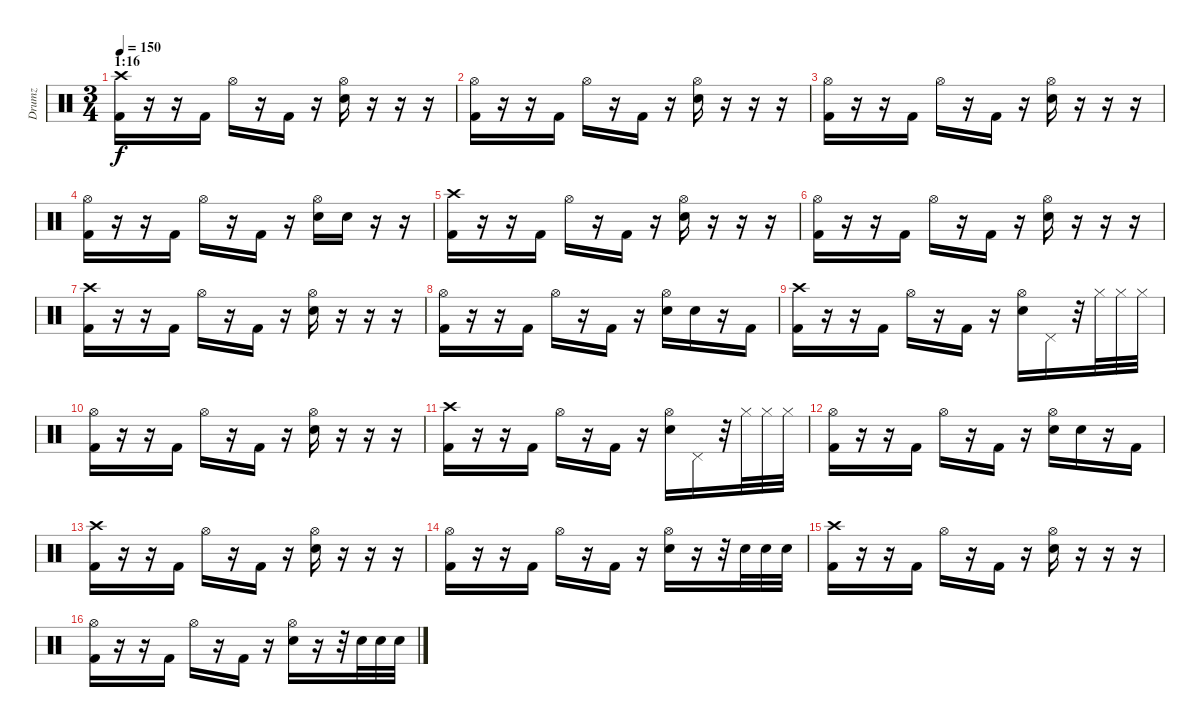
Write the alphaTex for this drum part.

\track ("Drumz" "Drumz") {instrument percussion}
\staff {score}
\articulation defaults
\ts (3 4)
\section ("" "1:16")
\tempo 150
\clef neutral
\ks c
("Crash high (hit)" "Kick (hit) 2").16{dy f} r.16 r.16 "Kick (hit) 2".16 "Hi-Hat (open)".16 r.16 "Kick (hit) 2".16 r.16 ("Hi-Hat (open)" "Electric Snare (hit)").16 r.16 r.16 r.16 |
("Hi-Hat (open)" "Kick (hit) 2").16 r.16 r.16 "Kick (hit) 2".16 "Hi-Hat (open)".16 r.16 "Kick (hit) 2".16 r.16 ("Hi-Hat (open)" "Electric Snare (hit)").16 r.16 r.16 r.16 |
("Hi-Hat (open)" "Kick (hit) 2").16 r.16 r.16 "Kick (hit) 2".16 "Hi-Hat (open)".16 r.16 "Kick (hit) 2".16 r.16 ("Hi-Hat (open)" "Electric Snare (hit)").16 r.16 r.16 r.16 |
("Hi-Hat (open)" "Kick (hit) 2").16 r.16 r.16 "Kick (hit) 2".16 "Hi-Hat (open)".16 r.16 "Kick (hit) 2".16 r.16 ("Hi-Hat (open)" "Electric Snare (hit)").16 "Electric Snare (hit)".16 r.16 r.16 |
("Crash high (hit)" "Kick (hit) 2").16 r.16 r.16 "Kick (hit) 2".16 "Hi-Hat (open)".16 r.16 "Kick (hit) 2".16 r.16 ("Hi-Hat (open)" "Electric Snare (hit)").16 r.16 r.16 r.16 |
("Hi-Hat (open)" "Kick (hit) 2").16 r.16 r.16 "Kick (hit) 2".16 "Hi-Hat (open)".16 r.16 "Kick (hit) 2".16 r.16 ("Hi-Hat (open)" "Electric Snare (hit)").16 r.16 r.16 r.16 |
("Crash high (hit)" "Kick (hit) 2").16 r.16 r.16 "Kick (hit) 2".16 "Hi-Hat (open)".16 r.16 "Kick (hit) 2".16 r.16 ("Hi-Hat (open)" "Electric Snare (hit)").16 r.16 r.16 r.16 |
("Hi-Hat (open)" "Kick (hit) 2").16 r.16 r.16 "Kick (hit) 2".16 "Hi-Hat (open)".16 r.16 "Kick (hit) 2".16 r.16 ("Hi-Hat (open)" "Electric Snare (hit)").16 "Electric Snare (hit)".16 r.16 "Kick (hit) 2".16 |
("Crash high (hit)" "Kick (hit) 2").16 r.16 r.16 "Kick (hit) 2".16 "Hi-Hat (open)".16 r.16 "Kick (hit) 2".16 r.16 ("Hi-Hat (open)" "Electric Snare (hit)").16 "Pedal Hi-Hat (hit)".16 r.32 "Hi-Hat (closed)".32 "Hi-Hat (closed)".32 "Hi-Hat (closed)".32 |
("Hi-Hat (open)" "Kick (hit) 2").16 r.16 r.16 "Kick (hit) 2".16 "Hi-Hat (open)".16 r.16 "Kick (hit) 2".16 r.16 ("Hi-Hat (open)" "Electric Snare (hit)").16 r.16 r.16 r.16 |
("Crash high (hit)" "Kick (hit) 2").16 r.16 r.16 "Kick (hit) 2".16 "Hi-Hat (open)".16 r.16 "Kick (hit) 2".16 r.16 ("Hi-Hat (open)" "Electric Snare (hit)").16 "Pedal Hi-Hat (hit)".16 r.32 "Hi-Hat (closed)".32 "Hi-Hat (closed)".32 "Hi-Hat (closed)".32 |
("Hi-Hat (open)" "Kick (hit) 2").16 r.16 r.16 "Kick (hit) 2".16 "Hi-Hat (open)".16 r.16 "Kick (hit) 2".16 r.16 ("Hi-Hat (open)" "Electric Snare (hit)").16 "Electric Snare (hit)".16 r.16 "Kick (hit) 2".16 |
("Crash high (hit)" "Kick (hit) 2").16 r.16 r.16 "Kick (hit) 2".16 "Hi-Hat (open)".16 r.16 "Kick (hit) 2".16 r.16 ("Hi-Hat (open)" "Electric Snare (hit)").16 r.16 r.16 r.16 |
("Hi-Hat (open)" "Kick (hit) 2").16 r.16 r.16 "Kick (hit) 2".16 "Hi-Hat (open)".16 r.16 "Kick (hit) 2".16 r.16 ("Hi-Hat (open)" "Electric Snare (hit)").16 r.16 r.32 "Electric Snare (hit)".32 "Electric Snare (hit)".32 "Electric Snare (hit)".32 |
("Crash high (hit)" "Kick (hit) 2").16 r.16 r.16 "Kick (hit) 2".16 "Hi-Hat (open)".16 r.16 "Kick (hit) 2".16 r.16 ("Hi-Hat (open)" "Electric Snare (hit)").16 r.16 r.16 r.16 |
("Hi-Hat (open)" "Kick (hit) 2").16 r.16 r.16 "Kick (hit) 2".16 "Hi-Hat (open)".16 r.16 "Kick (hit) 2".16 r.16 ("Hi-Hat (open)" "Electric Snare (hit)").16 r.16 r.32 "Electric Snare (hit)".32 "Electric Snare (hit)".32 "Electric Snare (hit)".32
